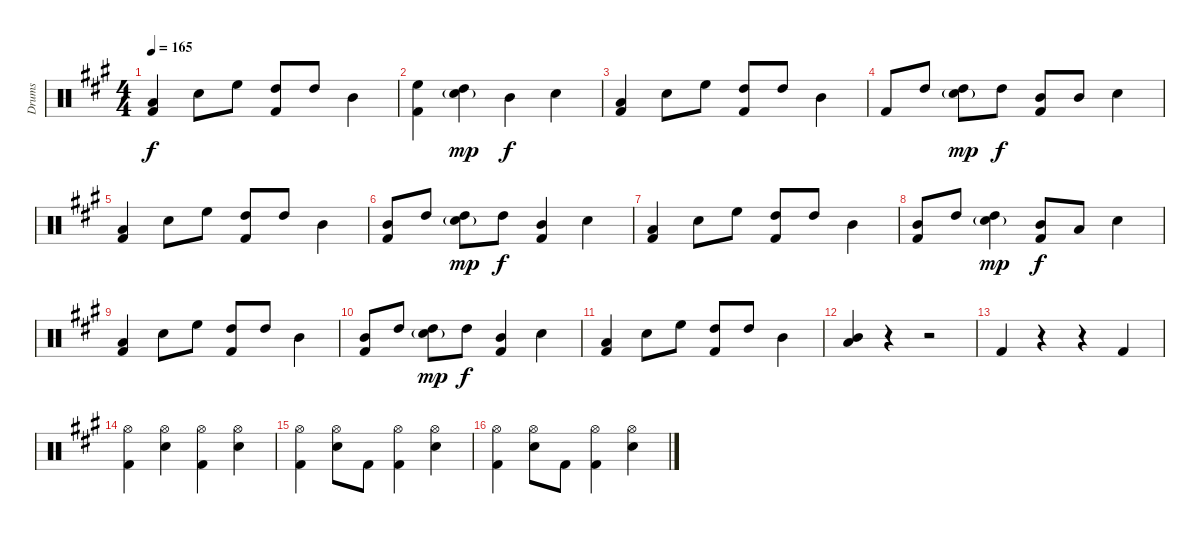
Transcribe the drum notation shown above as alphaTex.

\track ("Drums" "Drums") {instrument percussion}
\staff {score}
\articulation defaults
\ts (4 4)
\tempo 165
\clef neutral
\ks a
("Low Tom (hit)" "Kick (hit) 2").4{dy f} "Electric Snare (hit)".8 "High Floor Tom (hit)".8 ("High Tom (hit)" "Kick (hit) 2").8 "High Tom (hit)".8 "Mid Tom (hit)".4 |
("High Floor Tom (hit)" "Kick (hit) 2").4 ("High Tom (hit)" "Electric Snare (hit)"{g}).4{dy mp} "Mid Tom (hit)".4{dy f} "Electric Snare (hit)".4 |
("Low Tom (hit)" "Kick (hit) 2").4 "Electric Snare (hit)".8 "High Floor Tom (hit)".8 ("High Tom (hit)" "Kick (hit) 2").8 "High Tom (hit)".8 "Mid Tom (hit)".4 |
"Kick (hit) 2".8 "High Tom (hit)".8 ("High Tom (hit)" "Electric Snare (hit)"{g}).8{dy mp} "High Tom (hit)".8{dy f} ("Mid Tom (hit)" "Kick (hit) 2").8 "Mid Tom (hit)".8 "Electric Snare (hit)".4 |
("Low Tom (hit)" "Kick (hit) 2").4 "Electric Snare (hit)".8 "High Floor Tom (hit)".8 ("High Tom (hit)" "Kick (hit) 2").8 "High Tom (hit)".8 "Mid Tom (hit)".4 |
("Mid Tom (hit)" "Kick (hit) 2").8 "High Tom (hit)".8 ("High Tom (hit)" "Electric Snare (hit)"{g}).8{dy mp} "High Tom (hit)".8{dy f} ("Mid Tom (hit)" "Kick (hit) 2").4 "Electric Snare (hit)".4 |
("Low Tom (hit)" "Kick (hit) 2").4 "Electric Snare (hit)".8 "High Floor Tom (hit)".8 ("High Tom (hit)" "Kick (hit) 2").8 "High Tom (hit)".8 "Mid Tom (hit)".4 |
("Mid Tom (hit)" "Kick (hit) 2").8 "High Tom (hit)".8 ("High Tom (hit)" "Electric Snare (hit)"{g}).4{dy mp} ("Mid Tom (hit)" "Kick (hit) 2").8{dy f} "Low Tom (hit)".8 "Electric Snare (hit)".4 |
("Low Tom (hit)" "Kick (hit) 2").4 "Electric Snare (hit)".8 "High Floor Tom (hit)".8 ("High Tom (hit)" "Kick (hit) 2").8 "High Tom (hit)".8 "Mid Tom (hit)".4 |
("Mid Tom (hit)" "Kick (hit) 2").8 "High Tom (hit)".8 ("High Tom (hit)" "Electric Snare (hit)"{g}).8{dy mp} "High Tom (hit)".8{dy f} ("Mid Tom (hit)" "Kick (hit) 2").4 "Electric Snare (hit)".4 |
("Low Tom (hit)" "Kick (hit) 2").4 "Electric Snare (hit)".8 "High Floor Tom (hit)".8 ("High Tom (hit)" "Kick (hit) 2").8 "High Tom (hit)".8 "Mid Tom (hit)".4 |
("Low Tom (hit)" "Mid Tom (hit)").4 r.4 r.2 |
"Kick (hit) 2".4 r.4 r.4 "Kick (hit) 2".4 |
("Hi-Hat (open)" "Kick (hit) 2").4 ("Hi-Hat (open)" "Electric Snare (hit)").4 ("Hi-Hat (open)" "Kick (hit) 2").4 ("Hi-Hat (open)" "Electric Snare (hit)").4 |
("Hi-Hat (open)" "Kick (hit) 2").4 ("Hi-Hat (open)" "Electric Snare (hit)").8 "Kick (hit) 2".8 ("Hi-Hat (open)" "Kick (hit) 2").4 ("Hi-Hat (open)" "Electric Snare (hit)").4 |
("Hi-Hat (open)" "Kick (hit) 2").4 ("Hi-Hat (open)" "Electric Snare (hit)").8 "Kick (hit) 2".8 ("Hi-Hat (open)" "Kick (hit) 2").4 ("Hi-Hat (open)" "Electric Snare (hit)").4
